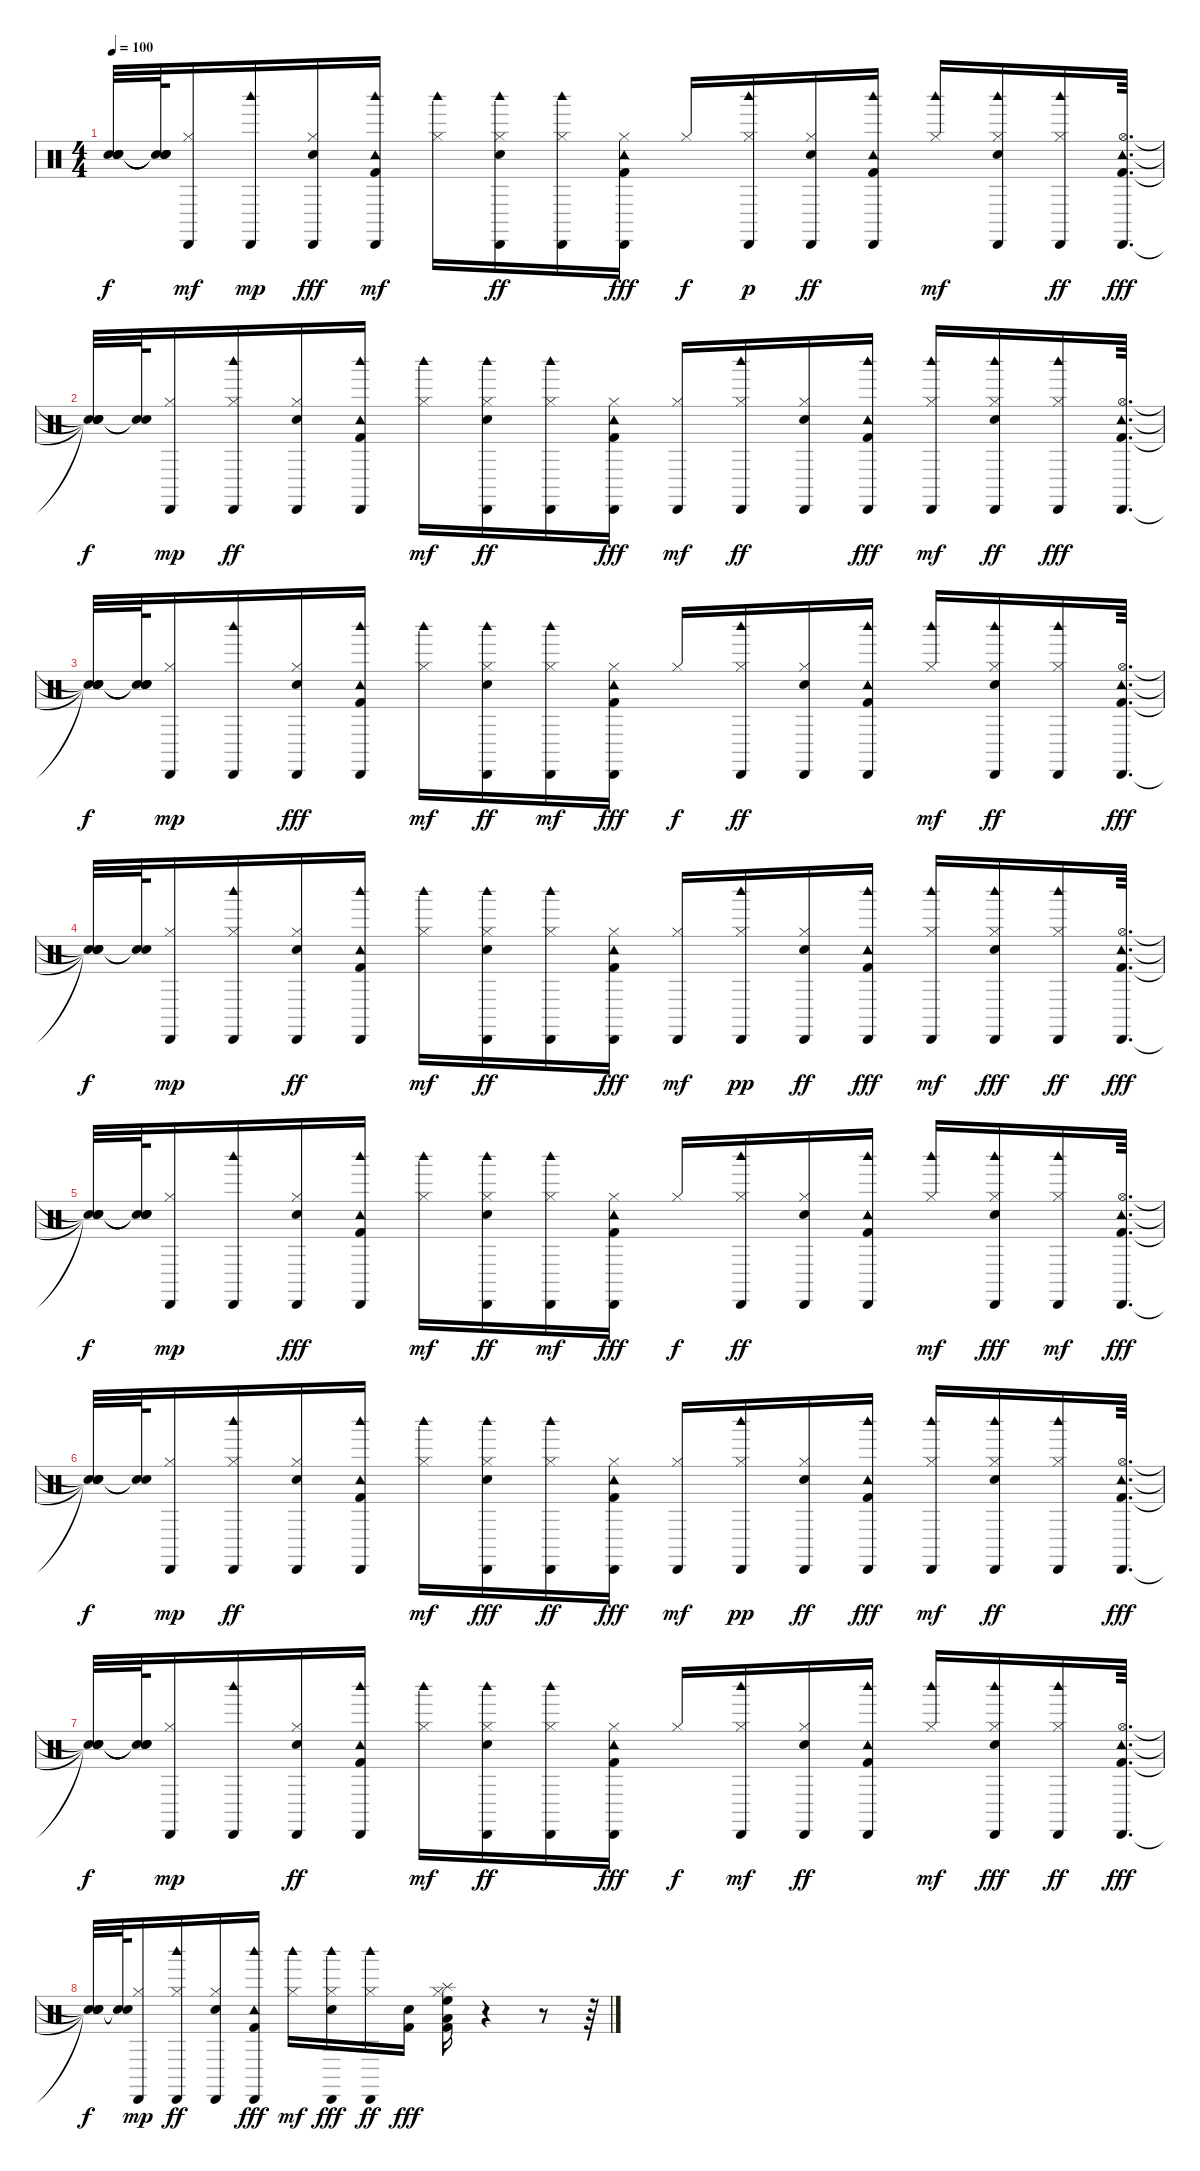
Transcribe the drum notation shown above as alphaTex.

\track "" {instrument percussion}
\staff {score}
\articulation defaults
\ts (4 4)
\tempo 100
\clef neutral
\ks c
("Snare (hit)"{t} "Snare (hit)"{t} "Snare (hit)"{t} "Snare (hit)"{t}).32{dy f} ("Snare (hit)"{t} "Snare (hit)"{t} "Snare (hit)"{t} "Snare (hit)"{t}).64 ("Hi-Hat (closed)" "Cabasa (hit)").16{dy mf} ("Woodblock high (hit)" "Cabasa (hit)").16{dy mp} ("Hi-Hat (closed)" "Cabasa (hit)" "Electric Snare (hit)").16{dy fff} ("Woodblock high (hit)" "Kick (hit) 2" "Tambourine (hit)" "Cabasa (hit)").16{dy mf} ("Hi-Hat (closed)" "Woodblock high (hit)").16 ("Hi-Hat (closed)" "Electric Snare (hit)" "Cabasa (hit)" "Woodblock high (hit)").16{dy ff} ("Cabasa (hit)" "Hi-Hat (closed)" "Woodblock high (hit)").16 ("Tambourine (hit)" "Hi-Hat (closed)" "Cabasa (hit)" "Kick (hit) 2").16{dy fff} "Hi-Hat (closed)".16{dy f} ("Woodblock high (hit)" "Cabasa (hit)" "Hi-Hat (closed)").16{dy p} ("Hi-Hat (closed)" "Cabasa (hit)" "Electric Snare (hit)").16{dy ff} ("Tambourine (hit)" "Woodblock high (hit)" "Kick (hit) 2" "Cabasa (hit)").16 ("Hi-Hat (closed)" "Woodblock high (hit)").16{dy mf} ("Hi-Hat (closed)" "Woodblock high (hit)" "Electric Snare (hit)" "Cabasa (hit)").16 ("Woodblock high (hit)" "Cabasa (hit)" "Hi-Hat (closed)").16{dy ff} ("Cabasa (hit)" "Tambourine (hit)" "Hi-Hat (open)" "Kick (hit) 2").64{d dy fff} |
("Snare (hit)"{t} "Snare (hit)"{t} "Snare (hit)"{t} "Snare (hit)"{t}).32{dy f} ("Snare (hit)"{t} "Snare (hit)"{t}).64 ("Cabasa (hit)" "Hi-Hat (closed)").16{dy mp} ("Hi-Hat (closed)" "Cabasa (hit)" "Woodblock high (hit)").16{dy ff} ("Cabasa (hit)" "Electric Snare (hit)" "Hi-Hat (closed)").16 ("Kick (hit) 2" "Tambourine (hit)" "Woodblock high (hit)" "Cabasa (hit)").16 ("Woodblock high (hit)" "Hi-Hat (closed)").16{dy mf} ("Cabasa (hit)" "Electric Snare (hit)" "Woodblock high (hit)" "Hi-Hat (closed)").16{dy ff} ("Woodblock high (hit)" "Cabasa (hit)" "Hi-Hat (closed)").16 ("Cabasa (hit)" "Tambourine (hit)" "Kick (hit) 2" "Hi-Hat (closed)").16{dy fff} ("Cabasa (hit)" "Hi-Hat (closed)").16{dy mf} ("Cabasa (hit)" "Hi-Hat (closed)" "Woodblock high (hit)").16{dy ff} ("Cabasa (hit)" "Electric Snare (hit)" "Hi-Hat (closed)").16 ("Cabasa (hit)" "Kick (hit) 2" "Woodblock high (hit)" "Tambourine (hit)").16{dy fff} ("Cabasa (hit)" "Hi-Hat (closed)" "Woodblock high (hit)").16{dy mf} ("Cabasa (hit)" "Electric Snare (hit)" "Woodblock high (hit)" "Hi-Hat (closed)").16{dy ff} ("Cabasa (hit)" "Woodblock high (hit)" "Hi-Hat (closed)").16{dy fff} ("Cabasa (hit)" "Kick (hit) 2" "Hi-Hat (open)" "Tambourine (hit)").64{d} |
("Snare (hit)"{t} "Snare (hit)"{t} "Snare (hit)"{t} "Snare (hit)"{t}).32{dy f} ("Snare (hit)"{t} "Snare (hit)"{t} "Snare (hit)"{t} "Snare (hit)"{t}).64 ("Cabasa (hit)" "Hi-Hat (closed)").16{dy mp} ("Woodblock high (hit)" "Cabasa (hit)").16 ("Hi-Hat (closed)" "Electric Snare (hit)" "Cabasa (hit)").16{dy fff} ("Woodblock high (hit)" "Tambourine (hit)" "Cabasa (hit)" "Kick (hit) 2").16 ("Woodblock high (hit)" "Hi-Hat (closed)").16{dy mf} ("Cabasa (hit)" "Electric Snare (hit)" "Hi-Hat (closed)" "Woodblock high (hit)").16{dy ff} ("Hi-Hat (closed)" "Woodblock high (hit)" "Cabasa (hit)").16{dy mf} ("Kick (hit) 2" "Cabasa (hit)" "Hi-Hat (closed)" "Tambourine (hit)").16{dy fff} "Hi-Hat (closed)".16{dy f} ("Hi-Hat (closed)" "Cabasa (hit)" "Woodblock high (hit)").16{dy ff} ("Hi-Hat (closed)" "Cabasa (hit)" "Electric Snare (hit)").16 ("Kick (hit) 2" "Woodblock high (hit)" "Cabasa (hit)" "Tambourine (hit)").16 ("Hi-Hat (closed)" "Woodblock high (hit)").16{dy mf} ("Electric Snare (hit)" "Cabasa (hit)" "Woodblock high (hit)" "Hi-Hat (closed)").16{dy ff} ("Cabasa (hit)" "Hi-Hat (closed)" "Woodblock high (hit)").16 ("Hi-Hat (open)" "Tambourine (hit)" "Kick (hit) 2" "Cabasa (hit)").64{d dy fff} |
("Snare (hit)"{t} "Snare (hit)"{t} "Snare (hit)"{t} "Snare (hit)"{t}).32{dy f} ("Snare (hit)"{t} "Snare (hit)"{t}).64 ("Hi-Hat (closed)" "Cabasa (hit)").16{dy mp} ("Hi-Hat (closed)" "Woodblock high (hit)" "Cabasa (hit)").16 ("Cabasa (hit)" "Electric Snare (hit)" "Hi-Hat (closed)").16{dy ff} ("Tambourine (hit)" "Woodblock high (hit)" "Kick (hit) 2" "Cabasa (hit)").16 ("Woodblock high (hit)" "Hi-Hat (closed)").16{dy mf} ("Woodblock high (hit)" "Cabasa (hit)" "Electric Snare (hit)" "Hi-Hat (closed)").16{dy ff} ("Hi-Hat (closed)" "Woodblock high (hit)" "Cabasa (hit)").16 ("Tambourine (hit)" "Kick (hit) 2" "Cabasa (hit)" "Hi-Hat (closed)").16{dy fff} ("Hi-Hat (closed)" "Cabasa (hit)").16{dy mf} ("Cabasa (hit)" "Woodblock high (hit)" "Hi-Hat (closed)").16{dy pp} ("Electric Snare (hit)" "Cabasa (hit)" "Hi-Hat (closed)").16{dy ff} ("Woodblock high (hit)" "Cabasa (hit)" "Kick (hit) 2" "Tambourine (hit)").16{dy fff} ("Woodblock high (hit)" "Hi-Hat (closed)" "Cabasa (hit)").16{dy mf} ("Hi-Hat (closed)" "Woodblock high (hit)" "Cabasa (hit)" "Electric Snare (hit)").16{dy fff} ("Hi-Hat (closed)" "Cabasa (hit)" "Woodblock high (hit)").16{dy ff} ("Hi-Hat (open)" "Kick (hit) 2" "Cabasa (hit)" "Tambourine (hit)").64{d dy fff} |
("Snare (hit)"{t} "Snare (hit)"{t} "Snare (hit)"{t} "Snare (hit)"{t}).32{dy f} ("Snare (hit)"{t} "Snare (hit)"{t} "Snare (hit)"{t} "Snare (hit)"{t}).64 ("Cabasa (hit)" "Hi-Hat (closed)").16{dy mp} ("Cabasa (hit)" "Woodblock high (hit)").16 ("Hi-Hat (closed)" "Electric Snare (hit)" "Cabasa (hit)").16{dy fff} ("Kick (hit) 2" "Woodblock high (hit)" "Cabasa (hit)" "Tambourine (hit)").16 ("Hi-Hat (closed)" "Woodblock high (hit)").16{dy mf} ("Cabasa (hit)" "Electric Snare (hit)" "Woodblock high (hit)" "Hi-Hat (closed)").16{dy ff} ("Hi-Hat (closed)" "Woodblock high (hit)" "Cabasa (hit)").16{dy mf} ("Tambourine (hit)" "Cabasa (hit)" "Kick (hit) 2" "Hi-Hat (closed)").16{dy fff} "Hi-Hat (closed)".16{dy f} ("Hi-Hat (closed)" "Cabasa (hit)" "Woodblock high (hit)").16{dy ff} ("Hi-Hat (closed)" "Cabasa (hit)" "Electric Snare (hit)").16 ("Tambourine (hit)" "Kick (hit) 2" "Cabasa (hit)" "Woodblock high (hit)").16 ("Woodblock high (hit)" "Hi-Hat (closed)").16{dy mf} ("Woodblock high (hit)" "Cabasa (hit)" "Hi-Hat (closed)" "Electric Snare (hit)").16{dy fff} ("Hi-Hat (closed)" "Woodblock high (hit)" "Cabasa (hit)").16{dy mf} ("Cabasa (hit)" "Tambourine (hit)" "Hi-Hat (open)" "Kick (hit) 2").64{d dy fff} |
("Snare (hit)"{t} "Snare (hit)"{t} "Snare (hit)"{t} "Snare (hit)"{t}).32{dy f} ("Snare (hit)"{t} "Snare (hit)"{t}).64 ("Cabasa (hit)" "Hi-Hat (closed)").16{dy mp} ("Cabasa (hit)" "Hi-Hat (closed)" "Woodblock high (hit)").16{dy ff} ("Electric Snare (hit)" "Cabasa (hit)" "Hi-Hat (closed)").16 ("Tambourine (hit)" "Kick (hit) 2" "Woodblock high (hit)" "Cabasa (hit)").16 ("Hi-Hat (closed)" "Woodblock high (hit)").16{dy mf} ("Hi-Hat (closed)" "Cabasa (hit)" "Woodblock high (hit)" "Electric Snare (hit)").16{dy fff} ("Woodblock high (hit)" "Cabasa (hit)" "Hi-Hat (closed)").16{dy ff} ("Hi-Hat (closed)" "Cabasa (hit)" "Tambourine (hit)" "Kick (hit) 2").16{dy fff} ("Hi-Hat (closed)" "Cabasa (hit)").16{dy mf} ("Woodblock high (hit)" "Cabasa (hit)" "Hi-Hat (closed)").16{dy pp} ("Cabasa (hit)" "Electric Snare (hit)" "Hi-Hat (closed)").16{dy ff} ("Tambourine (hit)" "Cabasa (hit)" "Kick (hit) 2" "Woodblock high (hit)").16{dy fff} ("Hi-Hat (closed)" "Cabasa (hit)" "Woodblock high (hit)").16{dy mf} ("Electric Snare (hit)" "Cabasa (hit)" "Hi-Hat (closed)" "Woodblock high (hit)").16{dy ff} ("Cabasa (hit)" "Hi-Hat (closed)" "Woodblock high (hit)").16 ("Tambourine (hit)" "Kick (hit) 2" "Cabasa (hit)" "Hi-Hat (open)").64{d dy fff} |
("Snare (hit)"{t} "Snare (hit)"{t} "Snare (hit)"{t} "Snare (hit)"{t}).32{dy f} ("Snare (hit)"{t} "Snare (hit)"{t} "Snare (hit)"{t} "Snare (hit)"{t}).64 ("Cabasa (hit)" "Hi-Hat (closed)").16{dy mp} ("Woodblock high (hit)" "Cabasa (hit)").16 ("Cabasa (hit)" "Electric Snare (hit)" "Hi-Hat (closed)").16{dy ff} ("Tambourine (hit)" "Kick (hit) 2" "Cabasa (hit)" "Woodblock high (hit)").16 ("Woodblock high (hit)" "Hi-Hat (closed)").16{dy mf} ("Cabasa (hit)" "Electric Snare (hit)" "Woodblock high (hit)" "Hi-Hat (closed)").16{dy ff} ("Hi-Hat (closed)" "Cabasa (hit)" "Woodblock high (hit)").16 ("Tambourine (hit)" "Cabasa (hit)" "Hi-Hat (closed)" "Kick (hit) 2").16{dy fff} "Hi-Hat (closed)".16{dy f} ("Hi-Hat (closed)" "Woodblock high (hit)" "Cabasa (hit)").16{dy mf} ("Electric Snare (hit)" "Cabasa (hit)" "Hi-Hat (closed)").16{dy ff} ("Tambourine (hit)" "Woodblock high (hit)" "Kick (hit) 2" "Cabasa (hit)").16 ("Hi-Hat (closed)" "Woodblock high (hit)").16{dy mf} ("Cabasa (hit)" "Woodblock high (hit)" "Hi-Hat (closed)" "Electric Snare (hit)").16{dy fff} ("Woodblock high (hit)" "Cabasa (hit)" "Hi-Hat (closed)").16{dy ff} ("Tambourine (hit)" "Cabasa (hit)" "Hi-Hat (open)" "Kick (hit) 2").64{d dy fff} |
("Snare (hit)"{t} "Snare (hit)"{t} "Snare (hit)"{t} "Snare (hit)"{t}).32{dy f} ("Snare (hit)"{t} "Snare (hit)"{t}).64 ("Hi-Hat (closed)" "Cabasa (hit)").16{dy mp} ("Hi-Hat (closed)" "Cabasa (hit)" "Woodblock high (hit)").16{dy ff} ("Cabasa (hit)" "Electric Snare (hit)" "Hi-Hat (closed)").16 ("Kick (hit) 2" "Woodblock high (hit)" "Cabasa (hit)" "Tambourine (hit)").16{dy fff} ("Hi-Hat (closed)" "Woodblock high (hit)").16{dy mf} ("Woodblock high (hit)" "Hi-Hat (closed)" "Cabasa (hit)" "Electric Snare (hit)").16{dy fff} ("Woodblock high (hit)" "Cabasa (hit)" "Hi-Hat (closed)").16{dy ff} ("Kick (hit) 2" "Electric Snare (hit)").16{dy fff} ("Kick (hit) 2" "Low Floor Tom (hit)" "High Floor Tom (hit)" "Splash (hit)" "Hi-Hat (closed)").16 r.4 r.8 r.64
